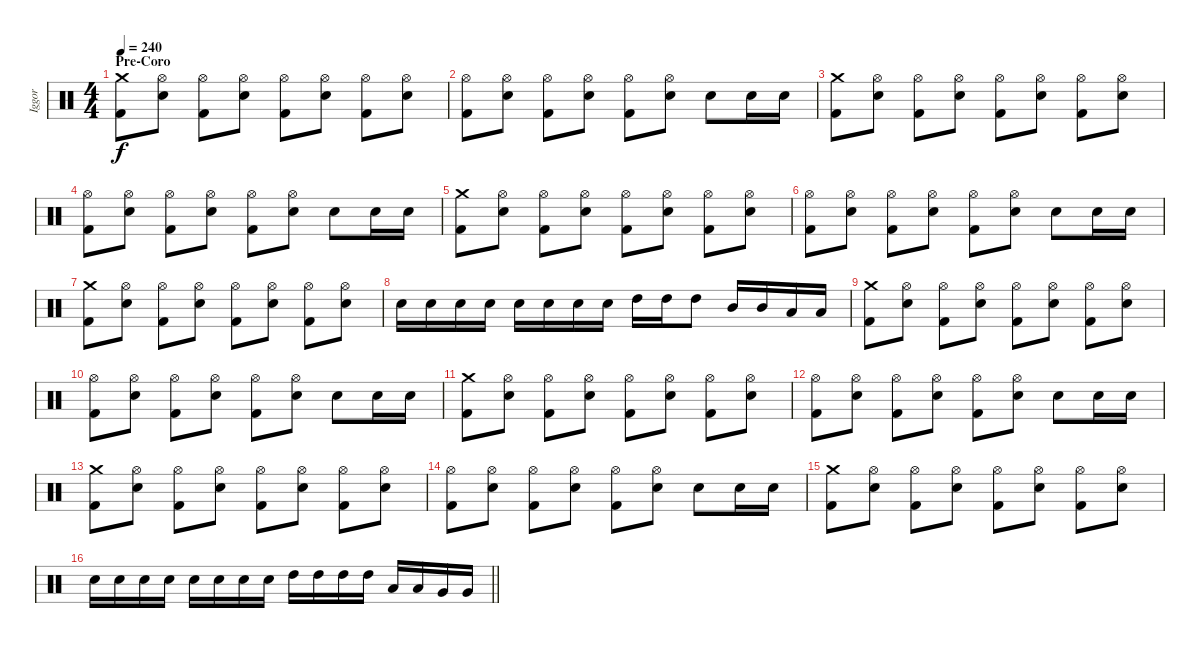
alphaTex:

\track ("Iggor" "Iggor") {instrument percussion}
\staff {score}
\articulation defaults
\ts (4 4)
\section ("" "Pre-Coro")
\tempo 240
\clef neutral
\ks c
("Crash medium (hit)" "Kick (hit) 2").8{dy f} ("Hi-Hat (open)" "Snare (hit) 2").8 ("Hi-Hat (open)" "Kick (hit) 2").8 ("Hi-Hat (open)" "Snare (hit) 2").8 ("Hi-Hat (open)" "Kick (hit) 2").8 ("Hi-Hat (open)" "Snare (hit) 2").8 ("Hi-Hat (open)" "Kick (hit) 2").8 ("Hi-Hat (open)" "Snare (hit) 2").8 |
("Hi-Hat (open)" "Kick (hit) 2").8 ("Hi-Hat (open)" "Snare (hit) 2").8 ("Hi-Hat (open)" "Kick (hit) 2").8 ("Hi-Hat (open)" "Snare (hit) 2").8 ("Hi-Hat (open)" "Kick (hit) 2").8 ("Hi-Hat (open)" "Snare (hit) 2").8 "Snare (hit) 2".8 "Snare (hit) 2".16 "Snare (hit) 2".16 |
("Crash medium (hit)" "Kick (hit) 2").8 ("Hi-Hat (open)" "Snare (hit) 2").8 ("Hi-Hat (open)" "Kick (hit) 2").8 ("Hi-Hat (open)" "Snare (hit) 2").8 ("Hi-Hat (open)" "Kick (hit) 2").8 ("Hi-Hat (open)" "Snare (hit) 2").8 ("Hi-Hat (open)" "Kick (hit) 2").8 ("Hi-Hat (open)" "Snare (hit) 2").8 |
("Hi-Hat (open)" "Kick (hit) 2").8 ("Hi-Hat (open)" "Snare (hit) 2").8 ("Hi-Hat (open)" "Kick (hit) 2").8 ("Hi-Hat (open)" "Snare (hit) 2").8 ("Hi-Hat (open)" "Kick (hit) 2").8 ("Hi-Hat (open)" "Snare (hit) 2").8 "Snare (hit) 2".8 "Snare (hit) 2".16 "Snare (hit) 2".16 |
("Crash medium (hit)" "Kick (hit) 2").8 ("Hi-Hat (open)" "Snare (hit) 2").8 ("Hi-Hat (open)" "Kick (hit) 2").8 ("Hi-Hat (open)" "Snare (hit) 2").8 ("Hi-Hat (open)" "Kick (hit) 2").8 ("Hi-Hat (open)" "Snare (hit) 2").8 ("Hi-Hat (open)" "Kick (hit) 2").8 ("Hi-Hat (open)" "Snare (hit) 2").8 |
("Hi-Hat (open)" "Kick (hit) 2").8 ("Hi-Hat (open)" "Snare (hit) 2").8 ("Hi-Hat (open)" "Kick (hit) 2").8 ("Hi-Hat (open)" "Snare (hit) 2").8 ("Hi-Hat (open)" "Kick (hit) 2").8 ("Hi-Hat (open)" "Snare (hit) 2").8 "Snare (hit) 2".8 "Snare (hit) 2".16 "Snare (hit) 2".16 |
("Crash medium (hit)" "Kick (hit) 2").8 ("Hi-Hat (open)" "Snare (hit) 2").8 ("Hi-Hat (open)" "Kick (hit) 2").8 ("Hi-Hat (open)" "Snare (hit) 2").8 ("Hi-Hat (open)" "Kick (hit) 2").8 ("Hi-Hat (open)" "Snare (hit) 2").8 ("Hi-Hat (open)" "Kick (hit) 2").8 ("Hi-Hat (open)" "Snare (hit) 2").8 |
"Snare (hit) 2".16 "Snare (hit) 2".16 "Snare (hit) 2".16 "Snare (hit) 2".16 "Snare (hit) 2".16 "Snare (hit) 2".16 "Snare (hit) 2".16 "Snare (hit) 2".16 "High Tom (hit)".16 "High Tom (hit)".16 "High Tom (hit)".8 "Mid Tom (hit)".16 "Mid Tom (hit)".16 "Low Tom (hit)".16 "Low Tom (hit)".16 |
("Crash medium (hit)" "Kick (hit) 2").8 ("Hi-Hat (open)" "Snare (hit) 2").8 ("Hi-Hat (open)" "Kick (hit) 2").8 ("Hi-Hat (open)" "Snare (hit) 2").8 ("Hi-Hat (open)" "Kick (hit) 2").8 ("Hi-Hat (open)" "Snare (hit) 2").8 ("Hi-Hat (open)" "Kick (hit) 2").8 ("Hi-Hat (open)" "Snare (hit) 2").8 |
("Hi-Hat (open)" "Kick (hit) 2").8 ("Hi-Hat (open)" "Snare (hit) 2").8 ("Hi-Hat (open)" "Kick (hit) 2").8 ("Hi-Hat (open)" "Snare (hit) 2").8 ("Hi-Hat (open)" "Kick (hit) 2").8 ("Hi-Hat (open)" "Snare (hit) 2").8 "Snare (hit) 2".8 "Snare (hit) 2".16 "Snare (hit) 2".16 |
("Crash medium (hit)" "Kick (hit) 2").8 ("Hi-Hat (open)" "Snare (hit) 2").8 ("Hi-Hat (open)" "Kick (hit) 2").8 ("Hi-Hat (open)" "Snare (hit) 2").8 ("Hi-Hat (open)" "Kick (hit) 2").8 ("Hi-Hat (open)" "Snare (hit) 2").8 ("Hi-Hat (open)" "Kick (hit) 2").8 ("Hi-Hat (open)" "Snare (hit) 2").8 |
("Hi-Hat (open)" "Kick (hit) 2").8 ("Hi-Hat (open)" "Snare (hit) 2").8 ("Hi-Hat (open)" "Kick (hit) 2").8 ("Hi-Hat (open)" "Snare (hit) 2").8 ("Hi-Hat (open)" "Kick (hit) 2").8 ("Hi-Hat (open)" "Snare (hit) 2").8 "Snare (hit) 2".8 "Snare (hit) 2".16 "Snare (hit) 2".16 |
("Crash medium (hit)" "Kick (hit) 2").8 ("Hi-Hat (open)" "Snare (hit) 2").8 ("Hi-Hat (open)" "Kick (hit) 2").8 ("Hi-Hat (open)" "Snare (hit) 2").8 ("Hi-Hat (open)" "Kick (hit) 2").8 ("Hi-Hat (open)" "Snare (hit) 2").8 ("Hi-Hat (open)" "Kick (hit) 2").8 ("Hi-Hat (open)" "Snare (hit) 2").8 |
("Hi-Hat (open)" "Kick (hit) 2").8 ("Hi-Hat (open)" "Snare (hit) 2").8 ("Hi-Hat (open)" "Kick (hit) 2").8 ("Hi-Hat (open)" "Snare (hit) 2").8 ("Hi-Hat (open)" "Kick (hit) 2").8 ("Hi-Hat (open)" "Snare (hit) 2").8 "Snare (hit) 2".8 "Snare (hit) 2".16 "Snare (hit) 2".16 |
("Crash medium (hit)" "Kick (hit) 2").8 ("Hi-Hat (open)" "Snare (hit) 2").8 ("Hi-Hat (open)" "Kick (hit) 2").8 ("Hi-Hat (open)" "Snare (hit) 2").8 ("Hi-Hat (open)" "Kick (hit) 2").8 ("Hi-Hat (open)" "Snare (hit) 2").8 ("Hi-Hat (open)" "Kick (hit) 2").8 ("Hi-Hat (open)" "Snare (hit) 2").8 |
\barLineRight lightlight "Snare (hit) 2".16 "Snare (hit) 2".16 "Snare (hit) 2".16 "Snare (hit) 2".16 "Snare (hit) 2".16 "Snare (hit) 2".16 "Snare (hit) 2".16 "Snare (hit) 2".16 "High Tom (hit)".16 "High Tom (hit)".16 "High Tom (hit)".16 "High Tom (hit)".16 "Low Tom (hit)".16 "Low Tom (hit)".16 "Very Low Tom (hit)".16 "Very Low Tom (hit)".16
